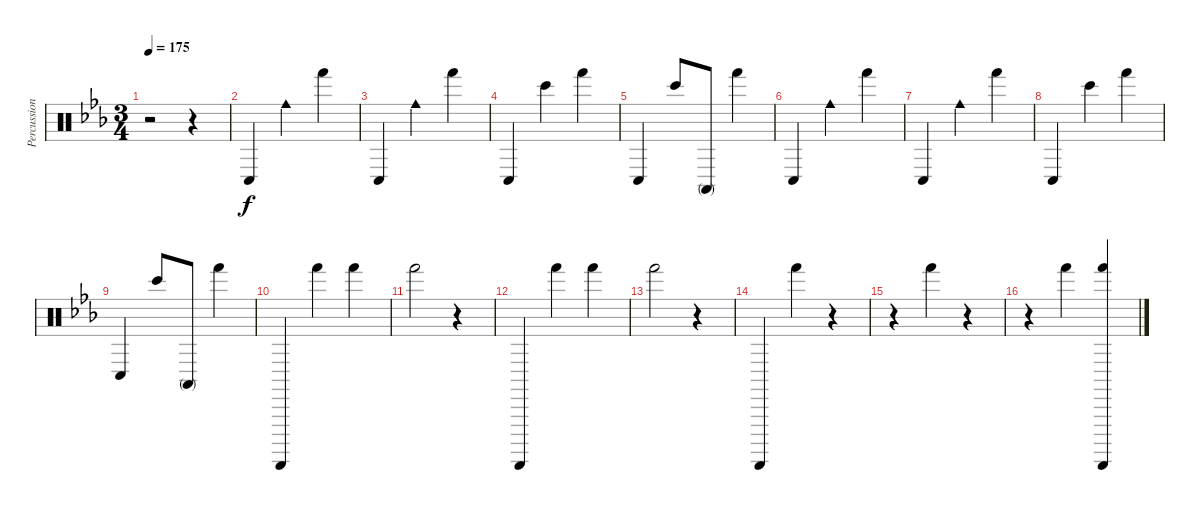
\track ("Percussion" "Percussion") {instrument percussion}
\staff {score}
\articulation defaults
\ts (3 4)
\tempo 175
\clef neutral
\ks eb
r.2{dy f} r.4 |
"Conga low (hit)".4 "Cowbell medium (hit)".4 "Hand (hit)".4 |
"Conga low (hit)".4 "Cowbell medium (hit)".4 "Hand (hit)".4 |
"Conga low (hit)".4 "Bongo High (hit)".4 "Hand (hit)".4 |
"Conga low (hit)".4 "Bongo High (hit)".8 "Conga high (mute)".8 "Hand (hit)".4 |
"Conga low (hit)".4 "Cowbell medium (hit)".4 "Hand (hit)".4 |
"Conga low (hit)".4 "Cowbell medium (hit)".4 "Hand (hit)".4 |
"Conga low (hit)".4 "Bongo High (hit)".4 "Hand (hit)".4 |
"Conga low (hit)".4 "Bongo High (hit)".8 "Conga high (mute)".8 "Hand (hit)".4 |
"Guiro (scrap-return)".4 "Hand (hit)".4 "Hand (hit)".4 |
"Hand (hit)".2 r.4 |
"Guiro (scrap-return)".4 "Hand (hit)".4 "Hand (hit)".4 |
"Hand (hit)".2 r.4 |
"Guiro (scrap-return)".4 "Hand (hit)".4 r.4 |
r.4 "Hand (hit)".4 r.4 |
r.4 "Hand (hit)".4 ("Guiro (scrap-return)" "Hand (hit)").4
